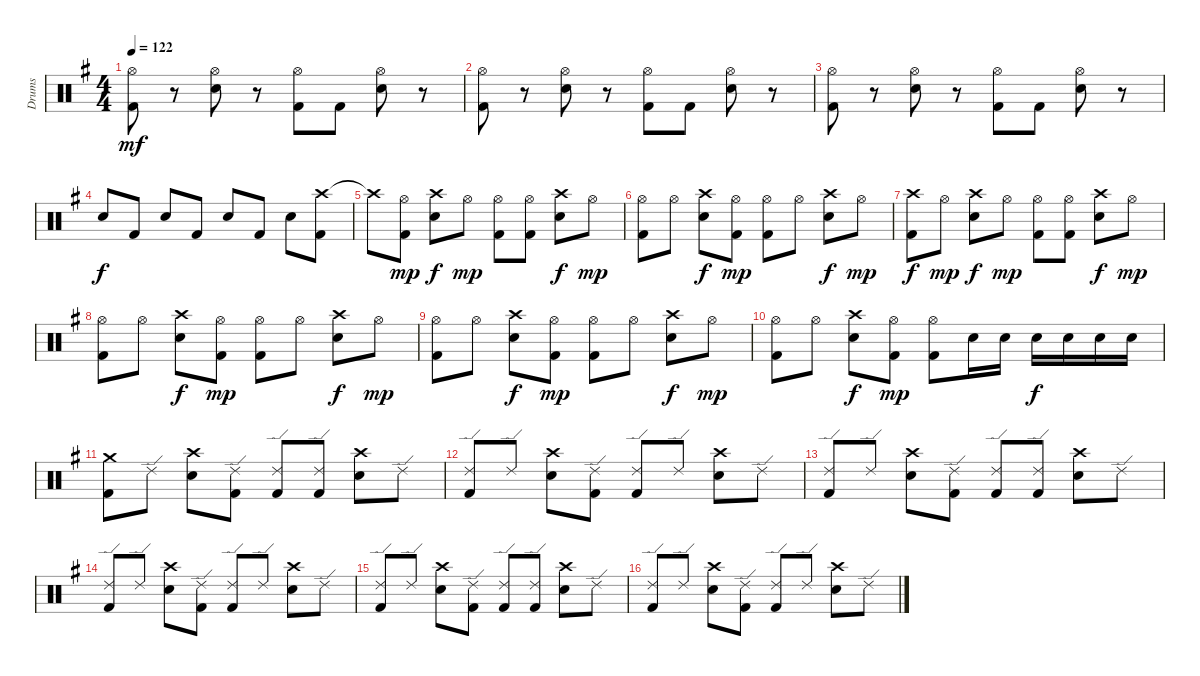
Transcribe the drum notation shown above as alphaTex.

\track ("Drums" "Drums") {instrument percussion}
\staff {score}
\articulation defaults
\ts (4 4)
\tempo 122
\clef neutral
\ks g
("Hi-Hat (open)" "Kick (hit) 2").8{dy mf} r.8 ("Hi-Hat (open)" "Electric Snare (hit)").8 r.8 ("Hi-Hat (open)" "Kick (hit) 2").8 "Kick (hit) 2".8 ("Hi-Hat (open)" "Electric Snare (hit)").8 r.8 |
("Hi-Hat (open)" "Kick (hit) 2").8 r.8 ("Hi-Hat (open)" "Electric Snare (hit)").8 r.8 ("Hi-Hat (open)" "Kick (hit) 2").8 "Kick (hit) 2".8 ("Hi-Hat (open)" "Electric Snare (hit)").8 r.8 |
("Hi-Hat (open)" "Kick (hit) 2").8 r.8 ("Hi-Hat (open)" "Electric Snare (hit)").8 r.8 ("Hi-Hat (open)" "Kick (hit) 2").8 "Kick (hit) 2".8 ("Hi-Hat (open)" "Electric Snare (hit)").8 r.8 |
"Electric Snare (hit)".8{dy f} "Kick (hit) 2".8 "Electric Snare (hit)".8 "Kick (hit) 2".8 "Electric Snare (hit)".8 "Kick (hit) 2".8 "Electric Snare (hit)".8 ("Crash high (hit)" "Kick (hit) 2").8 |
"Crash high (hit)"{t}.8 ("Hi-Hat (open)" "Kick (hit) 2").8{dy mp} ("Crash high (hit)" "Electric Snare (hit)").8{dy f} "Hi-Hat (open)".8{dy mp} ("Hi-Hat (open)" "Kick (hit) 2").8 ("Hi-Hat (open)" "Kick (hit) 2").8 ("Crash high (hit)" "Electric Snare (hit)").8{dy f} "Hi-Hat (open)".8{dy mp} |
("Hi-Hat (open)" "Kick (hit) 2").8 "Hi-Hat (open)".8 ("Crash high (hit)" "Electric Snare (hit)").8{dy f} ("Hi-Hat (open)" "Kick (hit) 2").8{dy mp} ("Hi-Hat (open)" "Kick (hit) 2").8 "Hi-Hat (open)".8 ("Crash high (hit)" "Electric Snare (hit)").8{dy f} "Hi-Hat (open)".8{dy mp} |
("Crash high (hit)" "Kick (hit) 2").8{dy f} "Hi-Hat (open)".8{dy mp} ("Crash high (hit)" "Electric Snare (hit)").8{dy f} "Hi-Hat (open)".8{dy mp} ("Hi-Hat (open)" "Kick (hit) 2").8 ("Hi-Hat (open)" "Kick (hit) 2").8 ("Crash high (hit)" "Electric Snare (hit)").8{dy f} "Hi-Hat (open)".8{dy mp} |
("Hi-Hat (open)" "Kick (hit) 2").8 "Hi-Hat (open)".8 ("Crash high (hit)" "Electric Snare (hit)").8{dy f} ("Hi-Hat (open)" "Kick (hit) 2").8{dy mp} ("Hi-Hat (open)" "Kick (hit) 2").8 "Hi-Hat (open)".8 ("Crash high (hit)" "Electric Snare (hit)").8{dy f} "Hi-Hat (open)".8{dy mp} |
("Hi-Hat (open)" "Kick (hit) 2").8 "Hi-Hat (open)".8 ("Crash high (hit)" "Electric Snare (hit)").8{dy f} ("Hi-Hat (open)" "Kick (hit) 2").8{dy mp} ("Hi-Hat (open)" "Kick (hit) 2").8 "Hi-Hat (open)".8 ("Crash high (hit)" "Electric Snare (hit)").8{dy f} "Hi-Hat (open)".8{dy mp} |
("Hi-Hat (open)" "Kick (hit) 2").8 "Hi-Hat (open)".8 ("Crash high (hit)" "Electric Snare (hit)").8{dy f} ("Hi-Hat (open)" "Kick (hit) 2").8{dy mp} ("Hi-Hat (open)" "Kick (hit) 2").8 "Electric Snare (hit)".16 "Electric Snare (hit)".16 "Electric Snare (hit)".16{dy f} "Electric Snare (hit)".16 "Electric Snare (hit)".16 "Electric Snare (hit)".16 |
("Crash medium (hit)" "Kick (hit) 2").8 "Ride (edge) 2".8 ("Crash high (hit)" "Electric Snare (hit)").8 ("Ride (edge) 2" "Kick (hit) 2").8 ("Ride (edge) 2" "Kick (hit) 2").8 ("Ride (edge) 2" "Kick (hit) 2").8 ("Crash high (hit)" "Electric Snare (hit)").8 "Ride (edge) 2".8 |
("Ride (edge) 2" "Kick (hit) 2").8 "Ride (edge) 2".8 ("Crash high (hit)" "Electric Snare (hit)").8 ("Ride (edge) 2" "Kick (hit) 2").8 ("Ride (edge) 2" "Kick (hit) 2").8 "Ride (edge) 2".8 ("Crash high (hit)" "Electric Snare (hit)").8 "Ride (edge) 2".8 |
("Ride (edge) 2" "Kick (hit) 2").8 "Ride (edge) 2".8 ("Crash high (hit)" "Electric Snare (hit)").8 ("Ride (edge) 2" "Kick (hit) 2").8 ("Ride (edge) 2" "Kick (hit) 2").8 ("Ride (edge) 2" "Kick (hit) 2").8 ("Crash high (hit)" "Electric Snare (hit)").8 "Ride (edge) 2".8 |
("Ride (edge) 2" "Kick (hit) 2").8 "Ride (edge) 2".8 ("Crash high (hit)" "Electric Snare (hit)").8 ("Ride (edge) 2" "Kick (hit) 2").8 ("Ride (edge) 2" "Kick (hit) 2").8 "Ride (edge) 2".8 ("Crash high (hit)" "Electric Snare (hit)").8 "Ride (edge) 2".8 |
("Ride (edge) 2" "Kick (hit) 2").8 "Ride (edge) 2".8 ("Crash high (hit)" "Electric Snare (hit)").8 ("Ride (edge) 2" "Kick (hit) 2").8 ("Ride (edge) 2" "Kick (hit) 2").8 ("Ride (edge) 2" "Kick (hit) 2").8 ("Crash high (hit)" "Electric Snare (hit)").8 "Ride (edge) 2".8 |
("Ride (edge) 2" "Kick (hit) 2").8 "Ride (edge) 2".8 ("Crash high (hit)" "Electric Snare (hit)").8 ("Ride (edge) 2" "Kick (hit) 2").8 ("Ride (edge) 2" "Kick (hit) 2").8 "Ride (edge) 2".8 ("Crash high (hit)" "Electric Snare (hit)").8 "Ride (edge) 2".8
